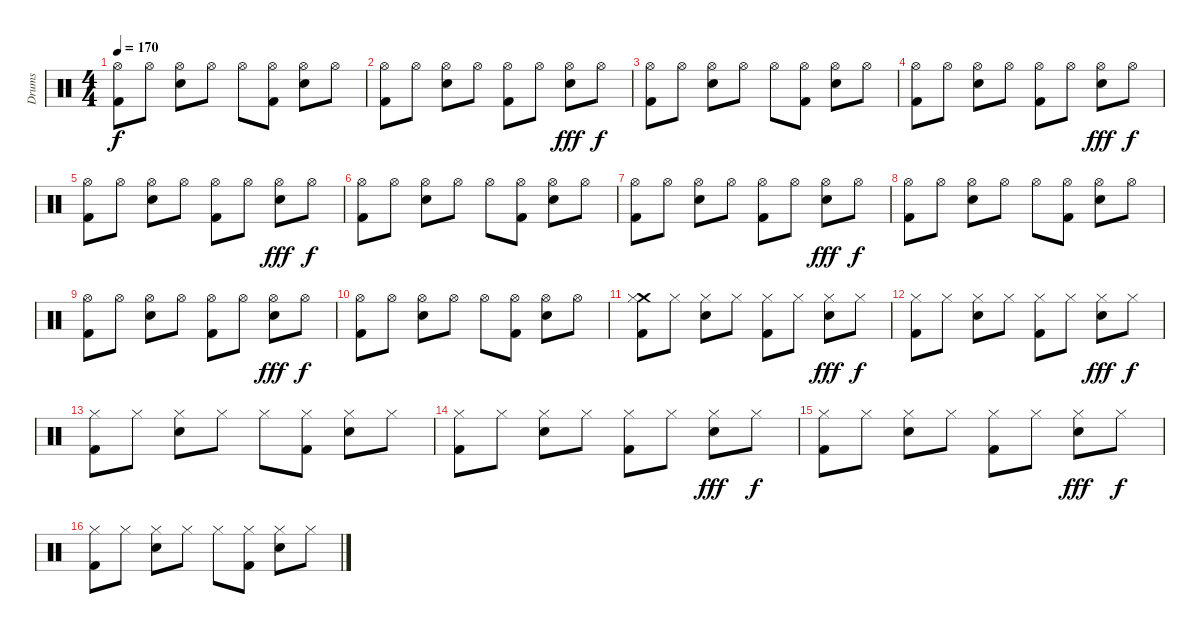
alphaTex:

\track ("Drums" "Drums") {instrument percussion}
\staff {score}
\articulation defaults
\ts (4 4)
\tempo 170
\clef neutral
\ks c
("Hi-Hat (open)" "Kick (hit) 2").8{dy f} "Hi-Hat (open)".8 ("Hi-Hat (open)" "Electric Snare (hit)").8 "Hi-Hat (open)".8 "Hi-Hat (open)".8 ("Hi-Hat (open)" "Kick (hit) 2").8 ("Hi-Hat (open)" "Electric Snare (hit)").8 "Hi-Hat (open)".8 |
("Hi-Hat (open)" "Kick (hit) 2").8 "Hi-Hat (open)".8 ("Hi-Hat (open)" "Electric Snare (hit)").8 "Hi-Hat (open)".8 ("Hi-Hat (open)" "Kick (hit) 2").8 "Hi-Hat (open)".8 ("Hi-Hat (open)" "Electric Snare (hit)").8{dy fff} "Hi-Hat (open)".8{dy f} |
("Hi-Hat (open)" "Kick (hit) 2").8 "Hi-Hat (open)".8 ("Hi-Hat (open)" "Electric Snare (hit)").8 "Hi-Hat (open)".8 "Hi-Hat (open)".8 ("Hi-Hat (open)" "Kick (hit) 2").8 ("Hi-Hat (open)" "Electric Snare (hit)").8 "Hi-Hat (open)".8 |
("Hi-Hat (open)" "Kick (hit) 2").8 "Hi-Hat (open)".8 ("Hi-Hat (open)" "Electric Snare (hit)").8 "Hi-Hat (open)".8 ("Hi-Hat (open)" "Kick (hit) 2").8 "Hi-Hat (open)".8 ("Hi-Hat (open)" "Electric Snare (hit)").8{dy fff} "Hi-Hat (open)".8{dy f} |
("Hi-Hat (open)" "Kick (hit) 2").8 "Hi-Hat (open)".8 ("Hi-Hat (open)" "Electric Snare (hit)").8 "Hi-Hat (open)".8 ("Hi-Hat (open)" "Kick (hit) 2").8 "Hi-Hat (open)".8 ("Hi-Hat (open)" "Electric Snare (hit)").8{dy fff} "Hi-Hat (open)".8{dy f} |
("Hi-Hat (open)" "Kick (hit) 2").8 "Hi-Hat (open)".8 ("Hi-Hat (open)" "Electric Snare (hit)").8 "Hi-Hat (open)".8 "Hi-Hat (open)".8 ("Hi-Hat (open)" "Kick (hit) 2").8 ("Hi-Hat (open)" "Electric Snare (hit)").8 "Hi-Hat (open)".8 |
("Hi-Hat (open)" "Kick (hit) 2").8 "Hi-Hat (open)".8 ("Hi-Hat (open)" "Electric Snare (hit)").8 "Hi-Hat (open)".8 ("Hi-Hat (open)" "Kick (hit) 2").8 "Hi-Hat (open)".8 ("Hi-Hat (open)" "Electric Snare (hit)").8{dy fff} "Hi-Hat (open)".8{dy f} |
("Hi-Hat (open)" "Kick (hit) 2").8 "Hi-Hat (open)".8 ("Hi-Hat (open)" "Electric Snare (hit)").8 "Hi-Hat (open)".8 "Hi-Hat (open)".8 ("Hi-Hat (open)" "Kick (hit) 2").8 ("Hi-Hat (open)" "Electric Snare (hit)").8 "Hi-Hat (open)".8 |
("Hi-Hat (open)" "Kick (hit) 2").8 "Hi-Hat (open)".8 ("Hi-Hat (open)" "Electric Snare (hit)").8 "Hi-Hat (open)".8 ("Hi-Hat (open)" "Kick (hit) 2").8 "Hi-Hat (open)".8 ("Hi-Hat (open)" "Electric Snare (hit)").8{dy fff} "Hi-Hat (open)".8{dy f} |
("Hi-Hat (open)" "Kick (hit) 2").8 "Hi-Hat (open)".8 ("Hi-Hat (open)" "Electric Snare (hit)").8 "Hi-Hat (open)".8 "Hi-Hat (open)".8 ("Hi-Hat (open)" "Kick (hit) 2").8 ("Hi-Hat (open)" "Electric Snare (hit)").8 "Hi-Hat (open)".8 |
("Crash medium (hit)" "Hi-Hat (closed)" "Kick (hit) 2").8 "Hi-Hat (closed)".8 ("Hi-Hat (closed)" "Electric Snare (hit)").8 "Hi-Hat (closed)".8 ("Hi-Hat (closed)" "Kick (hit) 2").8 "Hi-Hat (closed)".8 ("Hi-Hat (closed)" "Electric Snare (hit)").8{dy fff} "Hi-Hat (closed)".8{dy f} |
("Hi-Hat (closed)" "Kick (hit) 2").8 "Hi-Hat (closed)".8 ("Hi-Hat (closed)" "Electric Snare (hit)").8 "Hi-Hat (closed)".8 ("Hi-Hat (closed)" "Kick (hit) 2").8 "Hi-Hat (closed)".8 ("Hi-Hat (closed)" "Electric Snare (hit)").8{dy fff} "Hi-Hat (closed)".8{dy f} |
("Hi-Hat (closed)" "Kick (hit) 2").8 "Hi-Hat (closed)".8 ("Hi-Hat (closed)" "Electric Snare (hit)").8 "Hi-Hat (closed)".8 "Hi-Hat (closed)".8 ("Hi-Hat (closed)" "Kick (hit) 2").8 ("Hi-Hat (closed)" "Electric Snare (hit)").8 "Hi-Hat (closed)".8 |
("Hi-Hat (closed)" "Kick (hit) 2").8 "Hi-Hat (closed)".8 ("Hi-Hat (closed)" "Electric Snare (hit)").8 "Hi-Hat (closed)".8 ("Hi-Hat (closed)" "Kick (hit) 2").8 "Hi-Hat (closed)".8 ("Hi-Hat (closed)" "Electric Snare (hit)").8{dy fff} "Hi-Hat (closed)".8{dy f} |
("Hi-Hat (closed)" "Kick (hit) 2").8 "Hi-Hat (closed)".8 ("Hi-Hat (closed)" "Electric Snare (hit)").8 "Hi-Hat (closed)".8 ("Hi-Hat (closed)" "Kick (hit) 2").8 "Hi-Hat (closed)".8 ("Hi-Hat (closed)" "Electric Snare (hit)").8{dy fff} "Hi-Hat (closed)".8{dy f} |
("Hi-Hat (closed)" "Kick (hit) 2").8 "Hi-Hat (closed)".8 ("Hi-Hat (closed)" "Electric Snare (hit)").8 "Hi-Hat (closed)".8 "Hi-Hat (closed)".8 ("Hi-Hat (closed)" "Kick (hit) 2").8 ("Hi-Hat (closed)" "Electric Snare (hit)").8 "Hi-Hat (closed)".8
